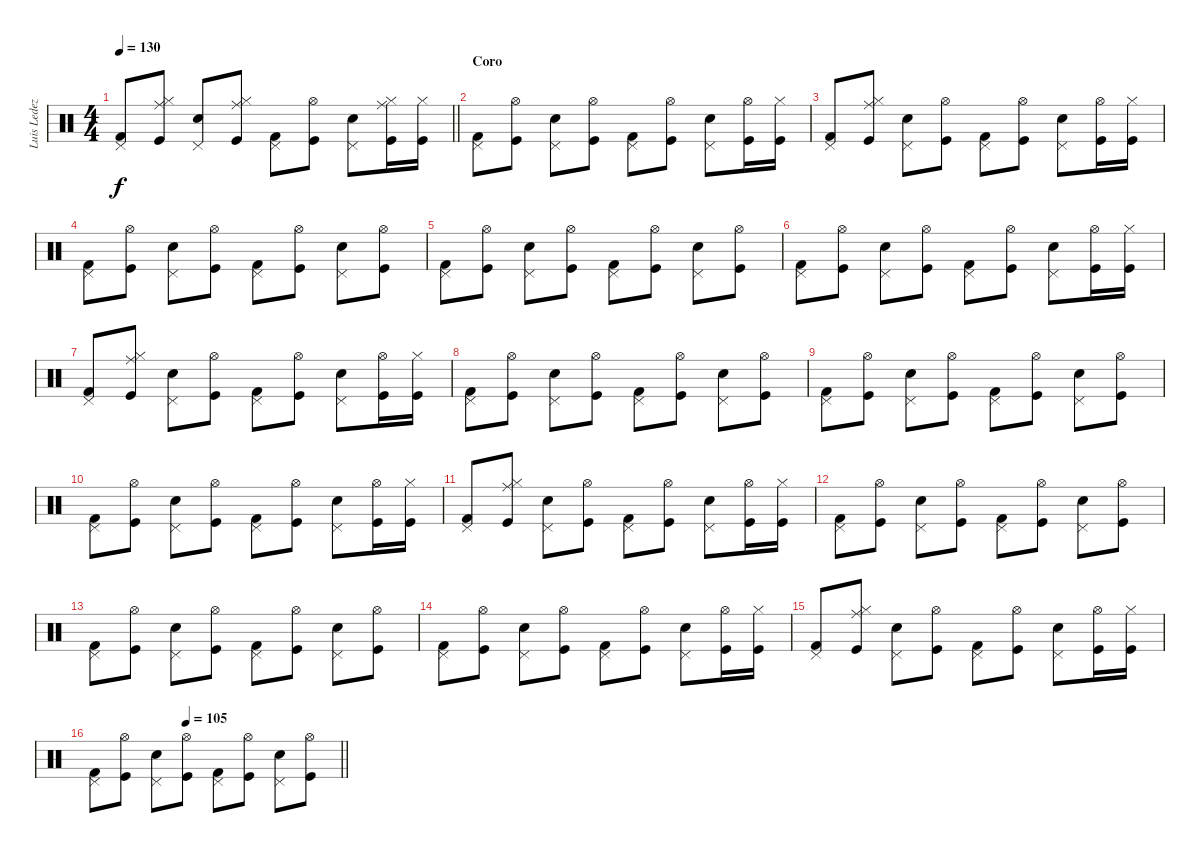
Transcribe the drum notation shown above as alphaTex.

\track ("Luis Ledezma (bateria)" "Luis Ledez") {instrument percussion}
\staff {score}
\articulation defaults
\ts (4 4)
\tempo 130
\clef neutral
\barLineRight lightlight
\ks c
("Pedal Hi-Hat (hit)" "Kick (hit) 2").8{dy f} ("Ride (middle)" "Hi-Hat (closed)" "Kick (hit)").8 ("Pedal Hi-Hat (hit)" "Snare (hit) 2").8 ("Ride (middle)" "Hi-Hat (closed)" "Kick (hit)").8 ("Pedal Hi-Hat (hit)" "Kick (hit) 2").8 ("Hi-Hat (open)" "Kick (hit)").8 ("Pedal Hi-Hat (hit)" "Snare (hit) 2").8 ("Ride (middle)" "Hi-Hat (closed)" "Kick (hit)").16 ("Hi-Hat (closed)" "Kick (hit)").16 |
\section ("" "Coro")
("Pedal Hi-Hat (hit)" "Kick (hit) 2").8 ("Hi-Hat (open)" "Kick (hit)").8 ("Pedal Hi-Hat (hit)" "Snare (hit) 2").8 ("Hi-Hat (open)" "Kick (hit)").8 ("Pedal Hi-Hat (hit)" "Kick (hit) 2").8 ("Hi-Hat (open)" "Kick (hit)").8 ("Pedal Hi-Hat (hit)" "Snare (hit) 2").8 ("Hi-Hat (open)" "Kick (hit)").16 ("Hi-Hat (closed)" "Kick (hit)").16 |
("Pedal Hi-Hat (hit)" "Kick (hit) 2").8 ("Ride (middle)" "Hi-Hat (closed)" "Kick (hit)").8 ("Pedal Hi-Hat (hit)" "Snare (hit) 2").8 ("Hi-Hat (open)" "Kick (hit)").8 ("Pedal Hi-Hat (hit)" "Kick (hit) 2").8 ("Hi-Hat (open)" "Kick (hit)").8 ("Pedal Hi-Hat (hit)" "Snare (hit) 2").8 ("Hi-Hat (open)" "Kick (hit)").16 ("Hi-Hat (closed)" "Kick (hit)").16 |
("Pedal Hi-Hat (hit)" "Kick (hit) 2").8 ("Hi-Hat (open)" "Kick (hit)").8 ("Pedal Hi-Hat (hit)" "Snare (hit) 2").8 ("Hi-Hat (open)" "Kick (hit)").8 ("Pedal Hi-Hat (hit)" "Kick (hit) 2").8 ("Hi-Hat (open)" "Kick (hit)").8 ("Pedal Hi-Hat (hit)" "Snare (hit) 2").8 ("Hi-Hat (open)" "Kick (hit)").8 |
("Pedal Hi-Hat (hit)" "Kick (hit) 2").8 ("Hi-Hat (open)" "Kick (hit)").8 ("Pedal Hi-Hat (hit)" "Snare (hit) 2").8 ("Hi-Hat (open)" "Kick (hit)").8 ("Pedal Hi-Hat (hit)" "Kick (hit) 2").8 ("Hi-Hat (open)" "Kick (hit)").8 ("Pedal Hi-Hat (hit)" "Snare (hit) 2").8 ("Hi-Hat (open)" "Kick (hit)").8 |
("Pedal Hi-Hat (hit)" "Kick (hit) 2").8 ("Hi-Hat (open)" "Kick (hit)").8 ("Pedal Hi-Hat (hit)" "Snare (hit) 2").8 ("Hi-Hat (open)" "Kick (hit)").8 ("Pedal Hi-Hat (hit)" "Kick (hit) 2").8 ("Hi-Hat (open)" "Kick (hit)").8 ("Pedal Hi-Hat (hit)" "Snare (hit) 2").8 ("Hi-Hat (open)" "Kick (hit)").16 ("Hi-Hat (closed)" "Kick (hit)").16 |
("Pedal Hi-Hat (hit)" "Kick (hit) 2").8 ("Ride (middle)" "Hi-Hat (closed)" "Kick (hit)").8 ("Pedal Hi-Hat (hit)" "Snare (hit) 2").8 ("Hi-Hat (open)" "Kick (hit)").8 ("Pedal Hi-Hat (hit)" "Kick (hit) 2").8 ("Hi-Hat (open)" "Kick (hit)").8 ("Pedal Hi-Hat (hit)" "Snare (hit) 2").8 ("Hi-Hat (open)" "Kick (hit)").16 ("Hi-Hat (closed)" "Kick (hit)").16 |
("Pedal Hi-Hat (hit)" "Kick (hit) 2").8 ("Hi-Hat (open)" "Kick (hit)").8 ("Pedal Hi-Hat (hit)" "Snare (hit) 2").8 ("Hi-Hat (open)" "Kick (hit)").8 ("Pedal Hi-Hat (hit)" "Kick (hit) 2").8 ("Hi-Hat (open)" "Kick (hit)").8 ("Pedal Hi-Hat (hit)" "Snare (hit) 2").8 ("Hi-Hat (open)" "Kick (hit)").8 |
("Pedal Hi-Hat (hit)" "Kick (hit) 2").8 ("Hi-Hat (open)" "Kick (hit)").8 ("Pedal Hi-Hat (hit)" "Snare (hit) 2").8 ("Hi-Hat (open)" "Kick (hit)").8 ("Pedal Hi-Hat (hit)" "Kick (hit) 2").8 ("Hi-Hat (open)" "Kick (hit)").8 ("Pedal Hi-Hat (hit)" "Snare (hit) 2").8 ("Hi-Hat (open)" "Kick (hit)").8 |
("Pedal Hi-Hat (hit)" "Kick (hit) 2").8 ("Hi-Hat (open)" "Kick (hit)").8 ("Pedal Hi-Hat (hit)" "Snare (hit) 2").8 ("Hi-Hat (open)" "Kick (hit)").8 ("Pedal Hi-Hat (hit)" "Kick (hit) 2").8 ("Hi-Hat (open)" "Kick (hit)").8 ("Pedal Hi-Hat (hit)" "Snare (hit) 2").8 ("Hi-Hat (open)" "Kick (hit)").16 ("Hi-Hat (closed)" "Kick (hit)").16 |
("Pedal Hi-Hat (hit)" "Kick (hit) 2").8 ("Ride (middle)" "Hi-Hat (closed)" "Kick (hit)").8 ("Pedal Hi-Hat (hit)" "Snare (hit) 2").8 ("Hi-Hat (open)" "Kick (hit)").8 ("Pedal Hi-Hat (hit)" "Kick (hit) 2").8 ("Hi-Hat (open)" "Kick (hit)").8 ("Pedal Hi-Hat (hit)" "Snare (hit) 2").8 ("Hi-Hat (open)" "Kick (hit)").16 ("Hi-Hat (closed)" "Kick (hit)").16 |
("Pedal Hi-Hat (hit)" "Kick (hit) 2").8 ("Hi-Hat (open)" "Kick (hit)").8 ("Pedal Hi-Hat (hit)" "Snare (hit) 2").8 ("Hi-Hat (open)" "Kick (hit)").8 ("Pedal Hi-Hat (hit)" "Kick (hit) 2").8 ("Hi-Hat (open)" "Kick (hit)").8 ("Pedal Hi-Hat (hit)" "Snare (hit) 2").8 ("Hi-Hat (open)" "Kick (hit)").8 |
("Pedal Hi-Hat (hit)" "Kick (hit) 2").8 ("Hi-Hat (open)" "Kick (hit)").8 ("Pedal Hi-Hat (hit)" "Snare (hit) 2").8 ("Hi-Hat (open)" "Kick (hit)").8 ("Pedal Hi-Hat (hit)" "Kick (hit) 2").8 ("Hi-Hat (open)" "Kick (hit)").8 ("Pedal Hi-Hat (hit)" "Snare (hit) 2").8 ("Hi-Hat (open)" "Kick (hit)").8 |
("Pedal Hi-Hat (hit)" "Kick (hit) 2").8 ("Hi-Hat (open)" "Kick (hit)").8 ("Pedal Hi-Hat (hit)" "Snare (hit) 2").8 ("Hi-Hat (open)" "Kick (hit)").8 ("Pedal Hi-Hat (hit)" "Kick (hit) 2").8 ("Hi-Hat (open)" "Kick (hit)").8 ("Pedal Hi-Hat (hit)" "Snare (hit) 2").8 ("Hi-Hat (open)" "Kick (hit)").16 ("Hi-Hat (closed)" "Kick (hit)").16 |
("Pedal Hi-Hat (hit)" "Kick (hit) 2").8 ("Ride (middle)" "Hi-Hat (closed)" "Kick (hit)").8 ("Pedal Hi-Hat (hit)" "Snare (hit) 2").8 ("Hi-Hat (open)" "Kick (hit)").8 ("Pedal Hi-Hat (hit)" "Kick (hit) 2").8 ("Hi-Hat (open)" "Kick (hit)").8 ("Pedal Hi-Hat (hit)" "Snare (hit) 2").8 ("Hi-Hat (open)" "Kick (hit)").16 ("Hi-Hat (closed)" "Kick (hit)").16 |
\tempo (105 0.375)
\barLineRight lightlight
("Pedal Hi-Hat (hit)" "Kick (hit) 2").8 ("Hi-Hat (open)" "Kick (hit)").8 ("Pedal Hi-Hat (hit)" "Snare (hit) 2").8 ("Hi-Hat (open)" "Kick (hit)").8 ("Pedal Hi-Hat (hit)" "Kick (hit) 2").8 ("Hi-Hat (open)" "Kick (hit)").8 ("Pedal Hi-Hat (hit)" "Snare (hit) 2").8 ("Hi-Hat (open)" "Kick (hit)").8
